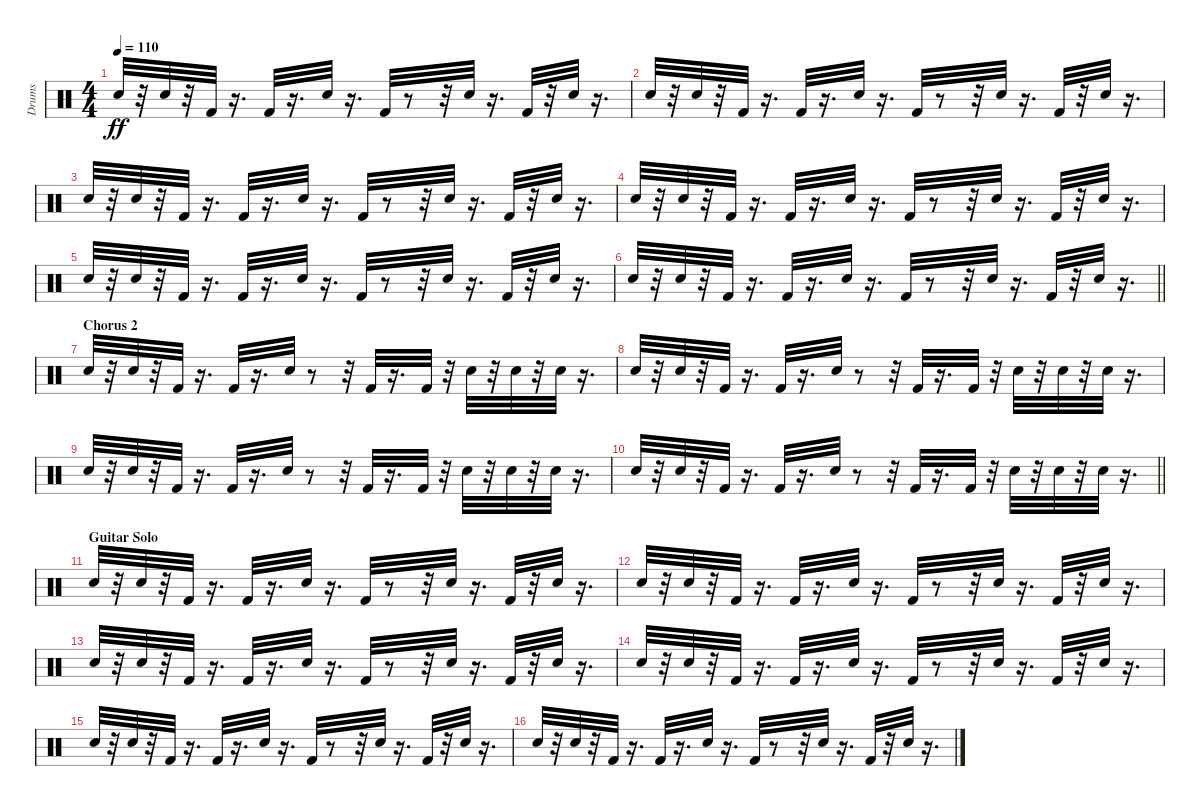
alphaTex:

\track ("Drums" "Drums") {instrument percussion}
\staff {score}
\articulation defaults
\ts (4 4)
\tempo 110
\clef neutral
\ks c "Electric Snare (hit)".32{dy ff}
r.32 "Electric Snare (hit)".32 r.32 "Kick (hit) 2".32 r.16{d} "Kick (hit) 2".32 r.16{d} "Electric Snare (hit)".32 r.16{d} "Kick (hit) 2".32 r.8 r.32 "Electric Snare (hit)".32 r.16{d} "Kick (hit) 2".32 r.32 "Electric Snare (hit)".32 r.16{d} |
"Electric Snare (hit)".32 r.32 "Electric Snare (hit)".32 r.32 "Kick (hit) 2".32 r.16{d} "Kick (hit) 2".32 r.16{d} "Electric Snare (hit)".32 r.16{d} "Kick (hit) 2".32 r.8 r.32 "Electric Snare (hit)".32 r.16{d} "Kick (hit) 2".32 r.32 "Electric Snare (hit)".32 r.16{d} |
"Electric Snare (hit)".32 r.32 "Electric Snare (hit)".32 r.32 "Kick (hit) 2".32 r.16{d} "Kick (hit) 2".32 r.16{d} "Electric Snare (hit)".32 r.16{d} "Kick (hit) 2".32 r.8 r.32 "Electric Snare (hit)".32 r.16{d} "Kick (hit) 2".32 r.32 "Electric Snare (hit)".32 r.16{d} |
"Electric Snare (hit)".32 r.32 "Electric Snare (hit)".32 r.32 "Kick (hit) 2".32 r.16{d} "Kick (hit) 2".32 r.16{d} "Electric Snare (hit)".32 r.16{d} "Kick (hit) 2".32 r.8 r.32 "Electric Snare (hit)".32 r.16{d} "Kick (hit) 2".32 r.32 "Electric Snare (hit)".32 r.16{d} |
"Electric Snare (hit)".32 r.32 "Electric Snare (hit)".32 r.32 "Kick (hit) 2".32 r.16{d} "Kick (hit) 2".32 r.16{d} "Electric Snare (hit)".32 r.16{d} "Kick (hit) 2".32 r.8 r.32 "Electric Snare (hit)".32 r.16{d} "Kick (hit) 2".32 r.32 "Electric Snare (hit)".32 r.16{d} |
\barLineRight lightlight "Electric Snare (hit)".32
r.32 "Electric Snare (hit)".32 r.32 "Kick (hit) 2".32 r.16{d} "Kick (hit) 2".32 r.16{d} "Electric Snare (hit)".32 r.16{d} "Kick (hit) 2".32 r.8 r.32 "Electric Snare (hit)".32 r.16{d} "Kick (hit) 2".32 r.32 "Electric Snare (hit)".32 r.16{d} |
\section ("" "Chorus 2")
"Electric Snare (hit)".32 r.32 "Electric Snare (hit)".32 r.32 "Kick (hit) 2".32 r.16{d} "Kick (hit) 2".32 r.16{d} "Electric Snare (hit)".32 r.8 r.32 "Kick (hit) 2".32 r.16{d} "Kick (hit) 2".32 r.32 "Electric Snare (hit)".32 r.32 "Electric Snare (hit)".32 r.32 "Electric Snare (hit)".32 r.16{d} |
"Electric Snare (hit)".32 r.32 "Electric Snare (hit)".32 r.32 "Kick (hit) 2".32 r.16{d} "Kick (hit) 2".32 r.16{d} "Electric Snare (hit)".32 r.8 r.32 "Kick (hit) 2".32 r.16{d} "Kick (hit) 2".32 r.32 "Electric Snare (hit)".32 r.32 "Electric Snare (hit)".32 r.32 "Electric Snare (hit)".32 r.16{d} |
"Electric Snare (hit)".32 r.32 "Electric Snare (hit)".32 r.32 "Kick (hit) 2".32 r.16{d} "Kick (hit) 2".32 r.16{d} "Electric Snare (hit)".32 r.8 r.32 "Kick (hit) 2".32 r.16{d} "Kick (hit) 2".32 r.32 "Electric Snare (hit)".32 r.32 "Electric Snare (hit)".32 r.32 "Electric Snare (hit)".32 r.16{d} |
\barLineRight lightlight "Electric Snare (hit)".32
r.32 "Electric Snare (hit)".32 r.32 "Kick (hit) 2".32 r.16{d} "Kick (hit) 2".32 r.16{d} "Electric Snare (hit)".32 r.8 r.32 "Kick (hit) 2".32 r.16{d} "Kick (hit) 2".32 r.32 "Electric Snare (hit)".32 r.32 "Electric Snare (hit)".32 r.32 "Electric Snare (hit)".32 r.16{d} |
\section ("" "Guitar Solo")
"Electric Snare (hit)".32 r.32 "Electric Snare (hit)".32 r.32 "Kick (hit) 2".32 r.16{d} "Kick (hit) 2".32 r.16{d} "Electric Snare (hit)".32 r.16{d} "Kick (hit) 2".32 r.8 r.32 "Electric Snare (hit)".32 r.16{d} "Kick (hit) 2".32 r.32 "Electric Snare (hit)".32 r.16{d} |
"Electric Snare (hit)".32 r.32 "Electric Snare (hit)".32 r.32 "Kick (hit) 2".32 r.16{d} "Kick (hit) 2".32 r.16{d} "Electric Snare (hit)".32 r.16{d} "Kick (hit) 2".32 r.8 r.32 "Electric Snare (hit)".32 r.16{d} "Kick (hit) 2".32 r.32 "Electric Snare (hit)".32 r.16{d} |
"Electric Snare (hit)".32 r.32 "Electric Snare (hit)".32 r.32 "Kick (hit) 2".32 r.16{d} "Kick (hit) 2".32 r.16{d} "Electric Snare (hit)".32 r.16{d} "Kick (hit) 2".32 r.8 r.32 "Electric Snare (hit)".32 r.16{d} "Kick (hit) 2".32 r.32 "Electric Snare (hit)".32 r.16{d} |
"Electric Snare (hit)".32 r.32 "Electric Snare (hit)".32 r.32 "Kick (hit) 2".32 r.16{d} "Kick (hit) 2".32 r.16{d} "Electric Snare (hit)".32 r.16{d} "Kick (hit) 2".32 r.8 r.32 "Electric Snare (hit)".32 r.16{d} "Kick (hit) 2".32 r.32 "Electric Snare (hit)".32 r.16{d} |
"Electric Snare (hit)".32 r.32 "Electric Snare (hit)".32 r.32 "Kick (hit) 2".32 r.16{d} "Kick (hit) 2".32 r.16{d} "Electric Snare (hit)".32 r.16{d} "Kick (hit) 2".32 r.8 r.32 "Electric Snare (hit)".32 r.16{d} "Kick (hit) 2".32 r.32 "Electric Snare (hit)".32 r.16{d} |
"Electric Snare (hit)".32 r.32 "Electric Snare (hit)".32 r.32 "Kick (hit) 2".32 r.16{d} "Kick (hit) 2".32 r.16{d} "Electric Snare (hit)".32 r.16{d} "Kick (hit) 2".32 r.8 r.32 "Electric Snare (hit)".32 r.16{d} "Kick (hit) 2".32 r.32 "Electric Snare (hit)".32 r.16{d}
